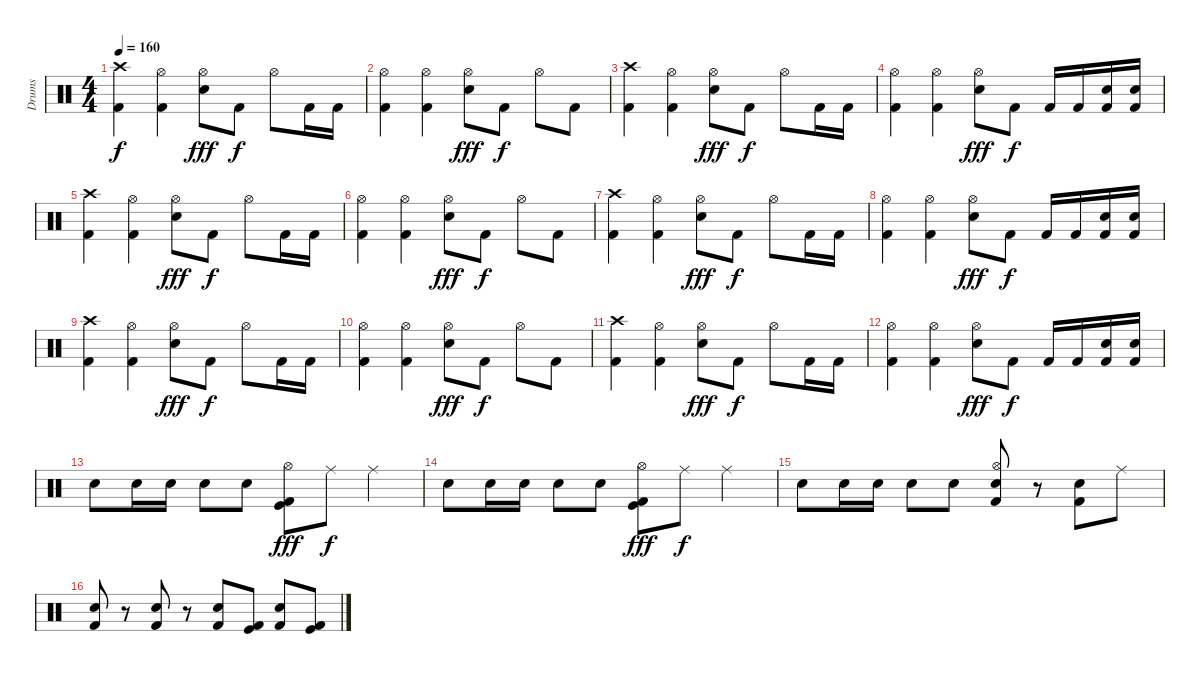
\track ("Drums" "Drums") {instrument percussion}
\staff {score}
\articulation defaults
\ts (4 4)
\tempo 160
\clef neutral
\ks c
("Crash high (hit)" "Kick (hit) 2").4{dy f} ("Hi-Hat (open)" "Kick (hit) 2").4 ("Hi-Hat (open)" "Snare (hit) 2").8{dy fff} "Kick (hit) 2".8{dy f} "Hi-Hat (open)".8 "Kick (hit) 2".16 "Kick (hit) 2".16 |
("Hi-Hat (open)" "Kick (hit) 2").4 ("Hi-Hat (open)" "Kick (hit) 2").4 ("Hi-Hat (open)" "Snare (hit) 2").8{dy fff} "Kick (hit) 2".8{dy f} "Hi-Hat (open)".8 "Kick (hit) 2".8 |
("Crash high (hit)" "Kick (hit) 2").4 ("Hi-Hat (open)" "Kick (hit) 2").4 ("Hi-Hat (open)" "Snare (hit) 2").8{dy fff} "Kick (hit) 2".8{dy f} "Hi-Hat (open)".8 "Kick (hit) 2".16 "Kick (hit) 2".16 |
("Hi-Hat (open)" "Kick (hit) 2").4 ("Hi-Hat (open)" "Kick (hit) 2").4 ("Hi-Hat (open)" "Snare (hit) 2").8{dy fff} "Kick (hit) 2".8{dy f} "Kick (hit) 2".16 "Kick (hit) 2".16 ("Snare (hit) 2" "Kick (hit) 2").16 ("Snare (hit) 2" "Kick (hit) 2").16 |
("Crash high (hit)" "Kick (hit) 2").4 ("Hi-Hat (open)" "Kick (hit) 2").4 ("Hi-Hat (open)" "Snare (hit) 2").8{dy fff} "Kick (hit) 2".8{dy f} "Hi-Hat (open)".8 "Kick (hit) 2".16 "Kick (hit) 2".16 |
("Hi-Hat (open)" "Kick (hit) 2").4 ("Hi-Hat (open)" "Kick (hit) 2").4 ("Hi-Hat (open)" "Snare (hit) 2").8{dy fff} "Kick (hit) 2".8{dy f} "Hi-Hat (open)".8 "Kick (hit) 2".8 |
("Crash high (hit)" "Kick (hit) 2").4 ("Hi-Hat (open)" "Kick (hit) 2").4 ("Hi-Hat (open)" "Snare (hit) 2").8{dy fff} "Kick (hit) 2".8{dy f} "Hi-Hat (open)".8 "Kick (hit) 2".16 "Kick (hit) 2".16 |
("Hi-Hat (open)" "Kick (hit) 2").4 ("Hi-Hat (open)" "Kick (hit) 2").4 ("Hi-Hat (open)" "Snare (hit) 2").8{dy fff} "Kick (hit) 2".8{dy f} "Kick (hit) 2".16 "Kick (hit) 2".16 ("Snare (hit) 2" "Kick (hit) 2").16 ("Snare (hit) 2" "Kick (hit) 2").16 |
("Crash high (hit)" "Kick (hit) 2").4 ("Hi-Hat (open)" "Kick (hit) 2").4 ("Hi-Hat (open)" "Snare (hit) 2").8{dy fff} "Kick (hit) 2".8{dy f} "Hi-Hat (open)".8 "Kick (hit) 2".16 "Kick (hit) 2".16 |
("Hi-Hat (open)" "Kick (hit) 2").4 ("Hi-Hat (open)" "Kick (hit) 2").4 ("Hi-Hat (open)" "Snare (hit) 2").8{dy fff} "Kick (hit) 2".8{dy f} "Hi-Hat (open)".8 "Kick (hit) 2".8 |
("Crash high (hit)" "Kick (hit) 2").4 ("Hi-Hat (open)" "Kick (hit) 2").4 ("Hi-Hat (open)" "Snare (hit) 2").8{dy fff} "Kick (hit) 2".8{dy f} "Hi-Hat (open)".8 "Kick (hit) 2".16 "Kick (hit) 2".16 |
("Hi-Hat (open)" "Kick (hit) 2").4 ("Hi-Hat (open)" "Kick (hit) 2").4 ("Hi-Hat (open)" "Snare (hit) 2").8{dy fff} "Kick (hit) 2".8{dy f} "Kick (hit) 2".16 "Kick (hit) 2".16 ("Snare (hit) 2" "Kick (hit) 2").16 ("Snare (hit) 2" "Kick (hit) 2").16 |
"Snare (hit) 2".8 "Snare (hit) 2".16 "Snare (hit) 2".16 "Snare (hit) 2".8 "Snare (hit) 2".8 ("Hi-Hat (open)" "Kick (hit)" "Kick (hit) 2").8{dy fff} "Ride (middle)".8{dy f} "Ride (middle)".4 |
"Snare (hit) 2".8 "Snare (hit) 2".16 "Snare (hit) 2".16 "Snare (hit) 2".8 "Snare (hit) 2".8 ("Hi-Hat (open)" "Kick (hit)" "Kick (hit) 2").8{dy fff} "Ride (middle)".8{dy f} "Ride (middle)".4 |
"Snare (hit) 2".8 "Snare (hit) 2".16 "Snare (hit) 2".16 "Snare (hit) 2".8 "Snare (hit) 2".8 ("Hi-Hat (open)" "Snare (hit) 2" "Kick (hit) 2").8 r.8 ("Snare (hit) 2" "Kick (hit) 2").8 "Ride (middle)".8 |
("Snare (hit) 2" "Kick (hit) 2").8 r.8 ("Snare (hit) 2" "Kick (hit) 2").8 r.8 ("Snare (hit) 2" "Kick (hit) 2").8 ("Kick (hit) 2" "Kick (hit)").8 ("Snare (hit) 2" "Kick (hit) 2").8 ("Kick (hit) 2" "Kick (hit)").8
